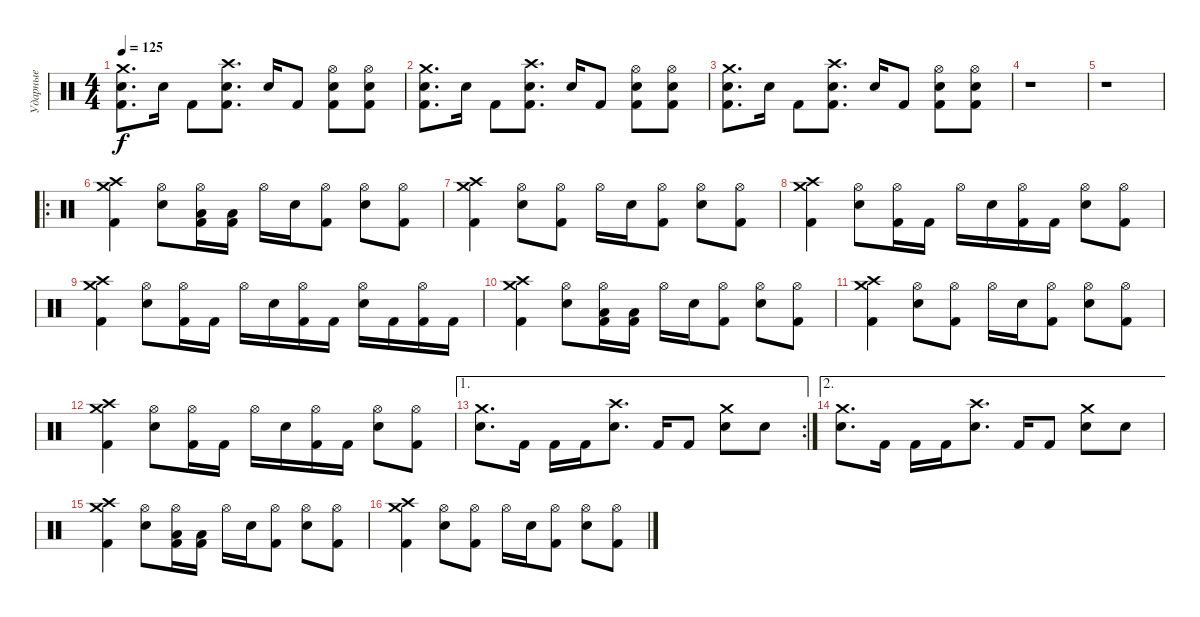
\track ("Ударные" "Ударные") {instrument percussion}
\staff {score}
\articulation defaults
\ts (4 4)
\tempo 125
\clef neutral
\ks c
("Crash medium (hit)" "Snare (hit) 2" "Kick (hit) 2").8{d dy f} "Snare (hit) 2".16 "Kick (hit) 2".8 ("Crash high (hit)" "Snare (hit) 2" "Kick (hit) 2").8{d} "Snare (hit) 2".16 "Kick (hit) 2".8 ("Hi-Hat (open)" "Snare (hit) 2" "Kick (hit) 2").8 ("Hi-Hat (open)" "Snare (hit) 2" "Kick (hit) 2").8 |
("Crash medium (hit)" "Snare (hit) 2" "Kick (hit) 2").8{d} "Snare (hit) 2".16 "Kick (hit) 2".8 ("Crash high (hit)" "Snare (hit) 2" "Kick (hit) 2").8{d} "Snare (hit) 2".16 "Kick (hit) 2".8 ("Hi-Hat (open)" "Snare (hit) 2" "Kick (hit) 2").8 ("Hi-Hat (open)" "Snare (hit) 2" "Kick (hit) 2").8 |
("Crash medium (hit)" "Snare (hit) 2" "Kick (hit) 2").8{d} "Snare (hit) 2".16 "Kick (hit) 2".8 ("Crash high (hit)" "Snare (hit) 2" "Kick (hit) 2").8{d} "Snare (hit) 2".16 "Kick (hit) 2".8 ("Hi-Hat (open)" "Snare (hit) 2" "Kick (hit) 2").8 ("Hi-Hat (open)" "Snare (hit) 2" "Kick (hit) 2").8 |
r.1 |
r.1 |
\ro
("Crash high (hit)" "Crash medium (hit)" "Kick (hit) 2").4 ("Hi-Hat (open)" "Snare (hit) 2").8 ("Hi-Hat (open)" "Low Tom (hit)" "Kick (hit) 2").16 ("Low Floor Tom (hit)" "Kick (hit) 2").16 "Hi-Hat (open)".16 "Snare (hit) 2".16 ("Hi-Hat (open)" "Kick (hit) 2").8 ("Hi-Hat (open)" "Snare (hit) 2").8 ("Hi-Hat (open)" "Kick (hit) 2").8 |
("Crash medium (hit)" "Crash high (hit)" "Kick (hit) 2").4 ("Hi-Hat (open)" "Snare (hit) 2").8 ("Hi-Hat (open)" "Kick (hit) 2").8 "Hi-Hat (open)".16 "Snare (hit) 2".16 ("Hi-Hat (open)" "Kick (hit) 2").8 ("Hi-Hat (open)" "Snare (hit) 2").8 ("Hi-Hat (open)" "Kick (hit) 2").8 |
("Crash high (hit)" "Crash medium (hit)" "Kick (hit) 2").4 ("Hi-Hat (open)" "Snare (hit) 2").8 ("Hi-Hat (open)" "Kick (hit) 2").16 "Kick (hit) 2".16 "Hi-Hat (open)".16 "Snare (hit) 2".16 ("Hi-Hat (open)" "Kick (hit) 2").16 "Kick (hit) 2".16 ("Hi-Hat (open)" "Snare (hit) 2").8 ("Hi-Hat (open)" "Kick (hit) 2").8 |
("Crash high (hit)" "Crash medium (hit)" "Kick (hit) 2").4 ("Hi-Hat (open)" "Snare (hit) 2").8 ("Hi-Hat (open)" "Kick (hit) 2").16 "Kick (hit) 2".16 "Hi-Hat (open)".16 "Snare (hit) 2".16 ("Hi-Hat (open)" "Kick (hit) 2").16 "Kick (hit) 2".16 ("Hi-Hat (open)" "Snare (hit) 2").16 "Kick (hit) 2".16 ("Hi-Hat (open)" "Kick (hit) 2").16 "Kick (hit) 2".16 |
("Crash high (hit)" "Crash medium (hit)" "Kick (hit) 2").4 ("Hi-Hat (open)" "Snare (hit) 2").8 ("Hi-Hat (open)" "Low Tom (hit)" "Kick (hit) 2").16 ("Low Floor Tom (hit)" "Kick (hit) 2").16 "Hi-Hat (open)".16 "Snare (hit) 2".16 ("Hi-Hat (open)" "Kick (hit) 2").8 ("Hi-Hat (open)" "Snare (hit) 2").8 ("Hi-Hat (open)" "Kick (hit) 2").8 |
("Crash medium (hit)" "Crash high (hit)" "Kick (hit) 2").4 ("Hi-Hat (open)" "Snare (hit) 2").8 ("Hi-Hat (open)" "Kick (hit) 2").8 "Hi-Hat (open)".16 "Snare (hit) 2".16 ("Hi-Hat (open)" "Kick (hit) 2").8 ("Hi-Hat (open)" "Snare (hit) 2").8 ("Hi-Hat (open)" "Kick (hit) 2").8 |
("Crash high (hit)" "Crash medium (hit)" "Kick (hit) 2").4 ("Hi-Hat (open)" "Snare (hit) 2").8 ("Hi-Hat (open)" "Kick (hit) 2").16 "Kick (hit) 2".16 "Hi-Hat (open)".16 "Snare (hit) 2".16 ("Hi-Hat (open)" "Kick (hit) 2").16 "Kick (hit) 2".16 ("Hi-Hat (open)" "Snare (hit) 2").8 ("Hi-Hat (open)" "Kick (hit) 2").8 |
\ae 1
\rc 2
("Crash medium (hit)" "Snare (hit) 2").8{d} "Kick (hit) 2".16 "Kick (hit) 2".16 "Kick (hit) 2".16 ("Crash high (hit)" "Snare (hit) 2").8{d} "Kick (hit) 2".16 "Kick (hit) 2".8 ("Crash medium (hit)" "Snare (hit) 2").8 "Snare (hit) 2".8 |
\ae 2
("Crash medium (hit)" "Snare (hit) 2").8{d} "Kick (hit) 2".16 "Kick (hit) 2".16 "Kick (hit) 2".16 ("Crash high (hit)" "Snare (hit) 2").8{d} "Kick (hit) 2".16 "Kick (hit) 2".8 ("Crash medium (hit)" "Snare (hit) 2").8 "Snare (hit) 2".8 |
("Crash high (hit)" "Crash medium (hit)" "Kick (hit) 2").4 ("Hi-Hat (open)" "Snare (hit) 2").8 ("Hi-Hat (open)" "Low Tom (hit)" "Kick (hit) 2").16 ("Low Floor Tom (hit)" "Kick (hit) 2").16 "Hi-Hat (open)".16 "Snare (hit) 2".16 ("Hi-Hat (open)" "Kick (hit) 2").8 ("Hi-Hat (open)" "Snare (hit) 2").8 ("Hi-Hat (open)" "Kick (hit) 2").8 |
("Crash medium (hit)" "Crash high (hit)" "Kick (hit) 2").4 ("Hi-Hat (open)" "Snare (hit) 2").8 ("Hi-Hat (open)" "Kick (hit) 2").8 "Hi-Hat (open)".16 "Snare (hit) 2".16 ("Hi-Hat (open)" "Kick (hit) 2").8 ("Hi-Hat (open)" "Snare (hit) 2").8 ("Hi-Hat (open)" "Kick (hit) 2").8
